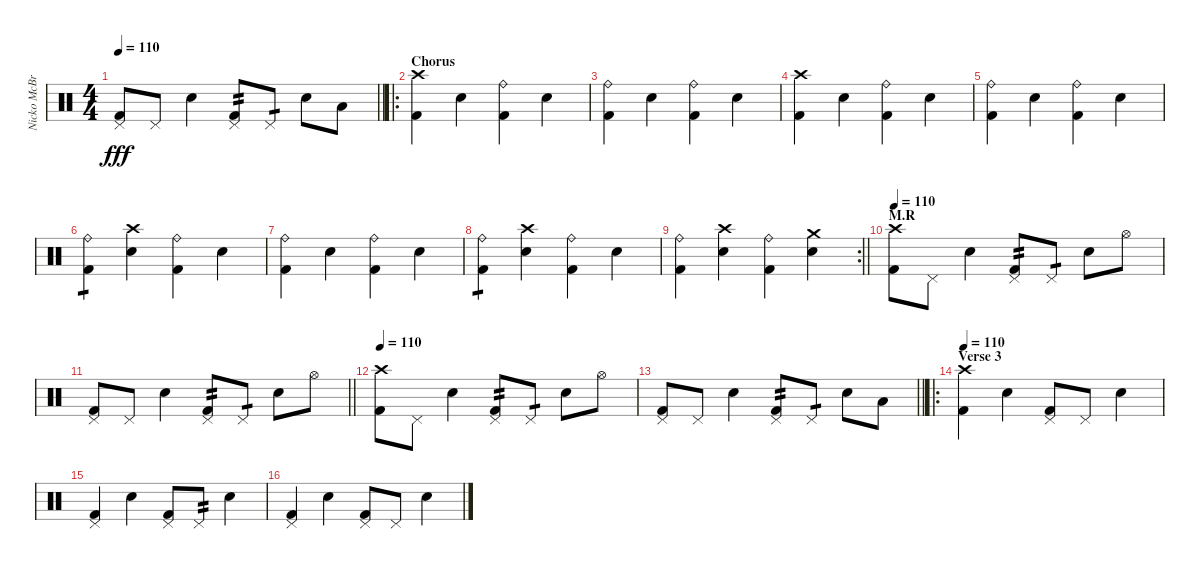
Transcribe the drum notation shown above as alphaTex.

\track ("Nicko McBrain" "Nicko McBr") {instrument percussion}
\staff {score}
\articulation defaults
\ts (4 4)
\tempo 110
\clef neutral
\barLineRight lightlight
\ks c
("Pedal Hi-Hat (hit)" "Kick (hit) 2").8{dy fff} "Pedal Hi-Hat (hit)".8 "Electric Snare (hit)".4 ("Pedal Hi-Hat (hit)" "Kick (hit) 2").8{tp 2} "Pedal Hi-Hat (hit)".8{tp 1} "Electric Snare (hit)".8 "Low Floor Tom (hit)".8 |
\ro
\section ("" "Chorus")
("Crash high (hit)" "Kick (hit) 2").4 "Electric Snare (hit)".4 ("Ride (bell)" "Kick (hit) 2").4 "Electric Snare (hit)".4 |
("Ride (bell)" "Kick (hit) 2").4 "Electric Snare (hit)".4 ("Ride (bell)" "Kick (hit) 2").4 "Electric Snare (hit)".4 |
("Crash high (hit)" "Kick (hit) 2").4 "Electric Snare (hit)".4 ("Ride (bell)" "Kick (hit) 2").4 "Electric Snare (hit)".4 |
("Ride (bell)" "Kick (hit) 2").4 "Electric Snare (hit)".4 ("Ride (bell)" "Kick (hit) 2").4 "Electric Snare (hit)".4 |
("Ride (bell)" "Kick (hit) 2").4{tp 1} ("Electric Snare (hit)" "Crash high (hit)").4 ("Ride (bell)" "Kick (hit) 2").4 "Electric Snare (hit)".4 |
("Ride (bell)" "Kick (hit) 2").4 "Electric Snare (hit)".4 ("Ride (bell)" "Kick (hit) 2").4 "Electric Snare (hit)".4 |
("Ride (bell)" "Kick (hit) 2").4{tp 1} ("Electric Snare (hit)" "Crash high (hit)").4 ("Ride (bell)" "Kick (hit) 2").4 "Electric Snare (hit)".4 |
\rc 2
\barLineRight lightlight
("Ride (bell)" "Kick (hit) 2").4 ("Electric Snare (hit)" "Crash high (hit)").4 ("Ride (bell)" "Kick (hit) 2").4 ("Electric Snare (hit)" "Crash medium (hit)").4 |
\section ("" "M.R")
\tempo 110
("Crash high (hit)" "Kick (hit) 2").8 "Pedal Hi-Hat (hit)".8 "Electric Snare (hit)".4 ("Pedal Hi-Hat (hit)" "Kick (hit) 2").8{tp 2} "Pedal Hi-Hat (hit)".8{tp 1} "Electric Snare (hit)".8 "Hi-Hat (open)".8 |
\barLineRight lightlight
("Pedal Hi-Hat (hit)" "Kick (hit) 2").8 "Pedal Hi-Hat (hit)".8 "Electric Snare (hit)".4 ("Pedal Hi-Hat (hit)" "Kick (hit) 2").8{tp 2} "Pedal Hi-Hat (hit)".8{tp 1} "Electric Snare (hit)".8 "Hi-Hat (open)".8 |
\tempo 110
("Crash high (hit)" "Kick (hit) 2").8 "Pedal Hi-Hat (hit)".8 "Electric Snare (hit)".4 ("Pedal Hi-Hat (hit)" "Kick (hit) 2").8{tp 2} "Pedal Hi-Hat (hit)".8{tp 1} "Electric Snare (hit)".8 "Hi-Hat (open)".8 |
\barLineRight lightlight
("Pedal Hi-Hat (hit)" "Kick (hit) 2").8 "Pedal Hi-Hat (hit)".8 "Electric Snare (hit)".4 ("Pedal Hi-Hat (hit)" "Kick (hit) 2").8{tp 2} "Pedal Hi-Hat (hit)".8{tp 1} "Electric Snare (hit)".8 "Low Floor Tom (hit)".8 |
\ro
\section ("" "Verse 3")
\tempo 110
("Crash high (hit)" "Kick (hit) 2").4 "Electric Snare (hit)".4 ("Pedal Hi-Hat (hit)" "Kick (hit) 2").8 "Pedal Hi-Hat (hit)".8 "Electric Snare (hit)".4 |
("Pedal Hi-Hat (hit)" "Kick (hit) 2").4 "Electric Snare (hit)".4 ("Pedal Hi-Hat (hit)" "Kick (hit) 2").8 "Pedal Hi-Hat (hit)".8{tp 2} "Electric Snare (hit)".4 |
("Pedal Hi-Hat (hit)" "Kick (hit) 2").4 "Electric Snare (hit)".4 ("Pedal Hi-Hat (hit)" "Kick (hit) 2").8 "Pedal Hi-Hat (hit)".8 "Electric Snare (hit)".4
